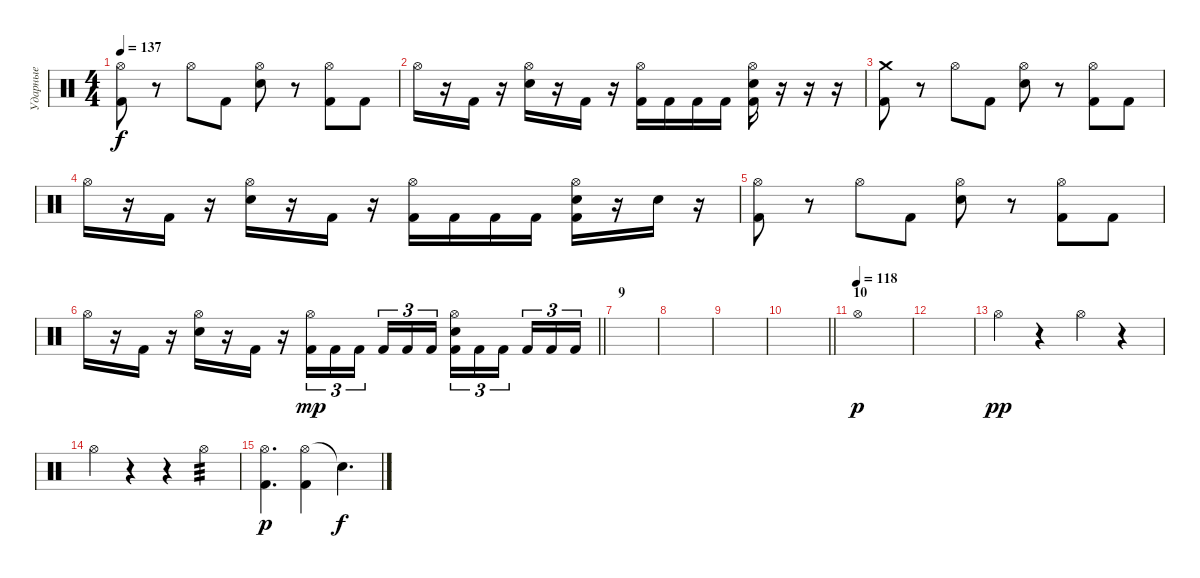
\track ("Ударные" "Ударные") {instrument percussion}
\staff {score}
\articulation defaults
\ts (4 4)
\tempo 137
\clef neutral
\ks c
("Hi-Hat (open)" "Kick (hit) 2").8{dy f} r.8 "Hi-Hat (open)".8 "Kick (hit) 2".8 ("Hi-Hat (open)" "Snare (hit) 2").8 r.8 ("Hi-Hat (open)" "Kick (hit) 2").8 "Kick (hit) 2".8 |
"Hi-Hat (open)".16 r.16 "Kick (hit) 2".16 r.16 ("Hi-Hat (open)" "Snare (hit) 2").16 r.16 "Kick (hit) 2".16 r.16 ("Hi-Hat (open)" "Kick (hit) 2").16 "Kick (hit) 2".16 "Kick (hit) 2".16 "Kick (hit) 2".16 ("Hi-Hat (open)" "Snare (hit) 2" "Kick (hit) 2").16 r.16 r.16 r.16 |
("Crash medium (hit)" "Kick (hit) 2").8 r.8 "Hi-Hat (open)".8 "Kick (hit) 2".8 ("Hi-Hat (open)" "Snare (hit) 2").8 r.8 ("Hi-Hat (open)" "Kick (hit) 2").8 "Kick (hit) 2".8 |
"Hi-Hat (open)".16 r.16 "Kick (hit) 2".16 r.16 ("Hi-Hat (open)" "Snare (hit) 2").16 r.16 "Kick (hit) 2".16 r.16 ("Hi-Hat (open)" "Kick (hit) 2").16 "Kick (hit) 2".16 "Kick (hit) 2".16 "Kick (hit) 2".16 ("Hi-Hat (open)" "Snare (hit) 2" "Kick (hit) 2").16 r.16 "Snare (hit) 2".16 r.16 |
("Hi-Hat (open)" "Kick (hit) 2").8 r.8 "Hi-Hat (open)".8 "Kick (hit) 2".8 ("Hi-Hat (open)" "Snare (hit) 2").8 r.8 ("Hi-Hat (open)" "Kick (hit) 2").8 "Kick (hit) 2".8 |
\barLineRight lightlight "Hi-Hat (open)".16
r.16 "Kick (hit) 2".16 r.16 ("Hi-Hat (open)" "Snare (hit) 2").16 r.16 "Kick (hit) 2".16 r.16 ("Hi-Hat (open)" "Kick (hit) 2").16{tu (3 2) dy mp} "Kick (hit) 2".16{tu (3 2)} "Kick (hit) 2".16{tu (3 2) beam splitsecondary} "Kick (hit) 2".16{tu (3 2)} "Kick (hit) 2".16{tu (3 2)} "Kick (hit) 2".16{tu (3 2)} ("Hi-Hat (open)" "Snare (hit) 2" "Kick (hit) 2").16{tu (3 2)} "Kick (hit) 2".16{tu (3 2)} "Kick (hit) 2".16{tu (3 2) beam splitsecondary} "Kick (hit) 2".16{tu (3 2)} "Kick (hit) 2".16{tu (3 2)} "Kick (hit) 2".16{tu (3 2)} |
\section ("" "9")
|
|
|
\barLineRight lightlight
|
\section ("" "10")
\tempo (118)
"Hi-Hat (open)".1{dy p} |
|
"Hi-Hat (open)".4{dy pp} r.4 "Hi-Hat (open)".4 r.4 |
"Hi-Hat (open)".4 r.4 r.4 "Hi-Hat (open)".4{tp 3} |
("Hi-Hat (open)" "Kick (hit) 2").4{d dy p} ("Hi-Hat (open)" "Kick (hit) 2").4 "Snare (hit)"{t}.4{d dy f}
